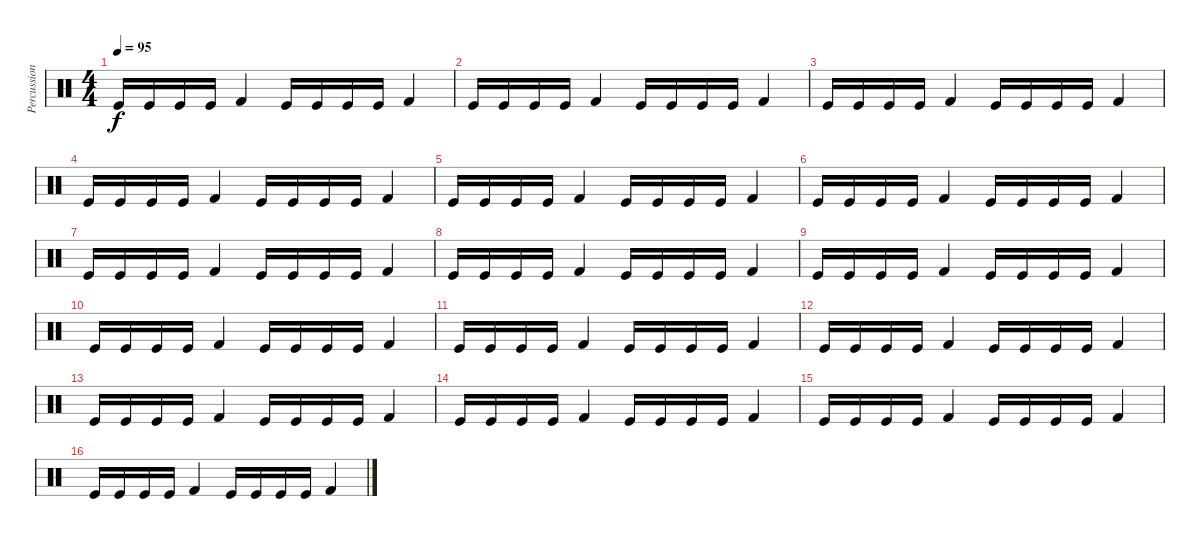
\track ("Percussion" "Percussion") {instrument percussion}
\staff {score}
\articulation defaults
\ts (4 4)
\tempo 95
\clef neutral
\ks c "Kick (hit)".16{dy f} "Kick (hit)".16 "Kick (hit)".16 "Kick (hit)".16 "Kick (hit) 2".4 "Kick (hit)".16 "Kick (hit)".16 "Kick (hit)".16 "Kick (hit)".16 "Kick (hit) 2".4
|
"Kick (hit)".16 "Kick (hit)".16 "Kick (hit)".16 "Kick (hit)".16 "Kick (hit) 2".4 "Kick (hit)".16 "Kick (hit)".16 "Kick (hit)".16 "Kick (hit)".16 "Kick (hit) 2".4 |
"Kick (hit)".16 "Kick (hit)".16 "Kick (hit)".16 "Kick (hit)".16 "Kick (hit) 2".4 "Kick (hit)".16 "Kick (hit)".16 "Kick (hit)".16 "Kick (hit)".16 "Kick (hit) 2".4 |
"Kick (hit)".16 "Kick (hit)".16 "Kick (hit)".16 "Kick (hit)".16 "Kick (hit) 2".4 "Kick (hit)".16 "Kick (hit)".16 "Kick (hit)".16 "Kick (hit)".16 "Kick (hit) 2".4 |
"Kick (hit)".16 "Kick (hit)".16 "Kick (hit)".16 "Kick (hit)".16 "Kick (hit) 2".4 "Kick (hit)".16 "Kick (hit)".16 "Kick (hit)".16 "Kick (hit)".16 "Kick (hit) 2".4 |
"Kick (hit)".16 "Kick (hit)".16 "Kick (hit)".16 "Kick (hit)".16 "Kick (hit) 2".4 "Kick (hit)".16 "Kick (hit)".16 "Kick (hit)".16 "Kick (hit)".16 "Kick (hit) 2".4 |
"Kick (hit)".16 "Kick (hit)".16 "Kick (hit)".16 "Kick (hit)".16 "Kick (hit) 2".4 "Kick (hit)".16 "Kick (hit)".16 "Kick (hit)".16 "Kick (hit)".16 "Kick (hit) 2".4 |
"Kick (hit)".16 "Kick (hit)".16 "Kick (hit)".16 "Kick (hit)".16 "Kick (hit) 2".4 "Kick (hit)".16 "Kick (hit)".16 "Kick (hit)".16 "Kick (hit)".16 "Kick (hit) 2".4 |
"Kick (hit)".16 "Kick (hit)".16 "Kick (hit)".16 "Kick (hit)".16 "Kick (hit) 2".4 "Kick (hit)".16 "Kick (hit)".16 "Kick (hit)".16 "Kick (hit)".16 "Kick (hit) 2".4 |
"Kick (hit)".16 "Kick (hit)".16 "Kick (hit)".16 "Kick (hit)".16 "Kick (hit) 2".4 "Kick (hit)".16 "Kick (hit)".16 "Kick (hit)".16 "Kick (hit)".16 "Kick (hit) 2".4 |
"Kick (hit)".16 "Kick (hit)".16 "Kick (hit)".16 "Kick (hit)".16 "Kick (hit) 2".4 "Kick (hit)".16 "Kick (hit)".16 "Kick (hit)".16 "Kick (hit)".16 "Kick (hit) 2".4 |
"Kick (hit)".16 "Kick (hit)".16 "Kick (hit)".16 "Kick (hit)".16 "Kick (hit) 2".4 "Kick (hit)".16 "Kick (hit)".16 "Kick (hit)".16 "Kick (hit)".16 "Kick (hit) 2".4 |
"Kick (hit)".16 "Kick (hit)".16 "Kick (hit)".16 "Kick (hit)".16 "Kick (hit) 2".4 "Kick (hit)".16 "Kick (hit)".16 "Kick (hit)".16 "Kick (hit)".16 "Kick (hit) 2".4 |
"Kick (hit)".16 "Kick (hit)".16 "Kick (hit)".16 "Kick (hit)".16 "Kick (hit) 2".4 "Kick (hit)".16 "Kick (hit)".16 "Kick (hit)".16 "Kick (hit)".16 "Kick (hit) 2".4 |
"Kick (hit)".16 "Kick (hit)".16 "Kick (hit)".16 "Kick (hit)".16 "Kick (hit) 2".4 "Kick (hit)".16 "Kick (hit)".16 "Kick (hit)".16 "Kick (hit)".16 "Kick (hit) 2".4 |
"Kick (hit)".16 "Kick (hit)".16 "Kick (hit)".16 "Kick (hit)".16 "Kick (hit) 2".4 "Kick (hit)".16 "Kick (hit)".16 "Kick (hit)".16 "Kick (hit)".16 "Kick (hit) 2".4
